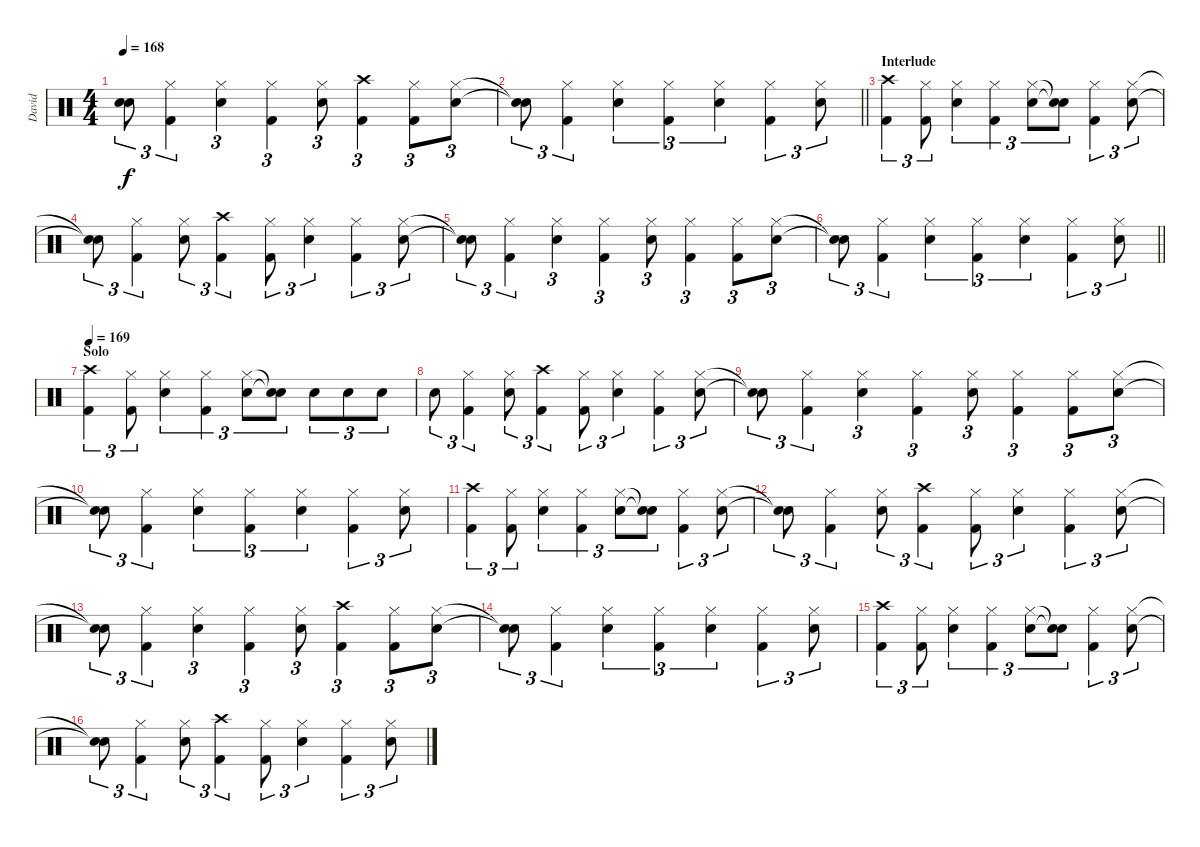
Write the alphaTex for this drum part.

\track ("David" "David") {instrument percussion}
\staff {score}
\articulation defaults
\ts (4 4)
\tempo 168
\clef neutral
\ks c
("Snare (hit)"{t} "Snare (hit)"{t}).8{tu (3 2) dy f} ("Hi-Hat (closed)" "Kick (hit) 2").4{tu (3 2)} ("Hi-Hat (closed)" "Snare (hit) 2").4{tu (3 2)} ("Hi-Hat (closed)" "Kick (hit) 2").4{tu (3 2)} ("Hi-Hat (closed)" "Snare (hit) 2").8{tu (3 2)} ("Crash high (hit)" "Kick (hit) 2").4{tu (3 2)} ("Hi-Hat (closed)" "Kick (hit) 2").8{tu (3 2)} ("Hi-Hat (closed)" "Snare (hit) 2").8{tu (3 2)} |
\barLineRight lightlight
("Snare (hit)"{t} "Snare (hit)"{t}).8{tu (3 2)} ("Hi-Hat (closed)" "Kick (hit) 2").4{tu (3 2)} ("Hi-Hat (closed)" "Snare (hit) 2").4{tu (3 2)} ("Hi-Hat (closed)" "Kick (hit) 2").4{tu (3 2)} ("Hi-Hat (closed)" "Snare (hit) 2").4{tu (3 2)} ("Hi-Hat (closed)" "Kick (hit) 2").4{tu (3 2)} ("Hi-Hat (closed)" "Snare (hit) 2").8{tu (3 2)} |
\section ("" "Interlude")
("Crash high (hit)" "Kick (hit) 2").4{tu (3 2)} ("Hi-Hat (closed)" "Kick (hit) 2").8{tu (3 2)} ("Hi-Hat (closed)" "Snare (hit) 2").4{tu (3 2)} ("Hi-Hat (closed)" "Kick (hit) 2").4{tu (3 2)} ("Hi-Hat (closed)" "Snare (hit) 2").8{tu (3 2)} ("Snare (hit)"{t} "Snare (hit)"{t}).8{tu (3 2)} ("Hi-Hat (closed)" "Kick (hit) 2").4{tu (3 2)} ("Hi-Hat (closed)" "Snare (hit) 2").8{tu (3 2)} |
("Snare (hit)"{t} "Snare (hit)"{t}).8{tu (3 2)} ("Hi-Hat (closed)" "Kick (hit) 2").4{tu (3 2)} ("Hi-Hat (closed)" "Snare (hit) 2").8{tu (3 2)} ("Crash high (hit)" "Kick (hit) 2").4{tu (3 2)} ("Hi-Hat (closed)" "Kick (hit) 2").8{tu (3 2)} ("Hi-Hat (closed)" "Snare (hit) 2").4{tu (3 2)} ("Hi-Hat (closed)" "Kick (hit) 2").4{tu (3 2)} ("Hi-Hat (closed)" "Snare (hit) 2").8{tu (3 2)} |
("Snare (hit)"{t} "Snare (hit)"{t}).8{tu (3 2)} ("Hi-Hat (closed)" "Kick (hit) 2").4{tu (3 2)} ("Hi-Hat (closed)" "Snare (hit) 2").4{tu (3 2)} ("Hi-Hat (closed)" "Kick (hit) 2").4{tu (3 2)} ("Hi-Hat (closed)" "Snare (hit) 2").8{tu (3 2)} ("Hi-Hat (closed)" "Kick (hit) 2").4{tu (3 2)} ("Hi-Hat (closed)" "Kick (hit) 2").8{tu (3 2)} ("Hi-Hat (closed)" "Snare (hit) 2").8{tu (3 2)} |
\barLineRight lightlight
("Snare (hit)"{t} "Snare (hit)"{t}).8{tu (3 2)} ("Hi-Hat (closed)" "Kick (hit) 2").4{tu (3 2)} ("Hi-Hat (closed)" "Snare (hit) 2").4{tu (3 2)} ("Hi-Hat (closed)" "Kick (hit) 2").4{tu (3 2)} ("Hi-Hat (closed)" "Snare (hit) 2").4{tu (3 2)} ("Hi-Hat (closed)" "Kick (hit) 2").4{tu (3 2)} ("Hi-Hat (closed)" "Snare (hit) 2").8{tu (3 2)} |
\section ("" "Solo")
\tempo 169
("Crash high (hit)" "Kick (hit) 2").4{tu (3 2)} ("Hi-Hat (closed)" "Kick (hit) 2").8{tu (3 2)} ("Hi-Hat (closed)" "Snare (hit) 2").4{tu (3 2)} ("Hi-Hat (closed)" "Kick (hit) 2").4{tu (3 2)} ("Hi-Hat (closed)" "Snare (hit) 2").8{tu (3 2)} ("Snare (hit)"{t} "Snare (hit)"{t}).8{tu (3 2)} "Snare (hit) 2".8{tu (3 2)} "Snare (hit) 2".8{tu (3 2)} "Snare (hit) 2".8{tu (3 2)} |
"Snare (hit) 2".8{tu (3 2)} ("Hi-Hat (closed)" "Kick (hit) 2").4{tu (3 2)} ("Hi-Hat (closed)" "Snare (hit) 2").8{tu (3 2)} ("Crash high (hit)" "Kick (hit) 2").4{tu (3 2)} ("Hi-Hat (closed)" "Kick (hit) 2").8{tu (3 2)} ("Hi-Hat (closed)" "Snare (hit) 2").4{tu (3 2)} ("Hi-Hat (closed)" "Kick (hit) 2").4{tu (3 2)} ("Hi-Hat (closed)" "Snare (hit) 2").8{tu (3 2)} |
("Snare (hit)"{t} "Snare (hit)"{t}).8{tu (3 2)} ("Hi-Hat (closed)" "Kick (hit) 2").4{tu (3 2)} ("Hi-Hat (closed)" "Snare (hit) 2").4{tu (3 2)} ("Hi-Hat (closed)" "Kick (hit) 2").4{tu (3 2)} ("Hi-Hat (closed)" "Snare (hit) 2").8{tu (3 2)} ("Hi-Hat (closed)" "Kick (hit) 2").4{tu (3 2)} ("Hi-Hat (closed)" "Kick (hit) 2").8{tu (3 2)} ("Hi-Hat (closed)" "Snare (hit) 2").8{tu (3 2)} |
("Snare (hit)"{t} "Snare (hit)"{t}).8{tu (3 2)} ("Hi-Hat (closed)" "Kick (hit) 2").4{tu (3 2)} ("Hi-Hat (closed)" "Snare (hit) 2").4{tu (3 2)} ("Hi-Hat (closed)" "Kick (hit) 2").4{tu (3 2)} ("Hi-Hat (closed)" "Snare (hit) 2").4{tu (3 2)} ("Hi-Hat (closed)" "Kick (hit) 2").4{tu (3 2)} ("Hi-Hat (closed)" "Snare (hit) 2").8{tu (3 2)} |
("Crash high (hit)" "Kick (hit) 2").4{tu (3 2)} ("Hi-Hat (closed)" "Kick (hit) 2").8{tu (3 2)} ("Hi-Hat (closed)" "Snare (hit) 2").4{tu (3 2)} ("Hi-Hat (closed)" "Kick (hit) 2").4{tu (3 2)} ("Hi-Hat (closed)" "Snare (hit) 2").8{tu (3 2)} ("Snare (hit)"{t} "Snare (hit)"{t}).8{tu (3 2)} ("Hi-Hat (closed)" "Kick (hit) 2").4{tu (3 2)} ("Hi-Hat (closed)" "Snare (hit) 2").8{tu (3 2)} |
("Snare (hit)"{t} "Snare (hit)"{t}).8{tu (3 2)} ("Hi-Hat (closed)" "Kick (hit) 2").4{tu (3 2)} ("Hi-Hat (closed)" "Snare (hit) 2").8{tu (3 2)} ("Crash high (hit)" "Kick (hit) 2").4{tu (3 2)} ("Hi-Hat (closed)" "Kick (hit) 2").8{tu (3 2)} ("Hi-Hat (closed)" "Snare (hit) 2").4{tu (3 2)} ("Hi-Hat (closed)" "Kick (hit) 2").4{tu (3 2)} ("Hi-Hat (closed)" "Snare (hit) 2").8{tu (3 2)} |
("Snare (hit)"{t} "Snare (hit)"{t}).8{tu (3 2)} ("Hi-Hat (closed)" "Kick (hit) 2").4{tu (3 2)} ("Hi-Hat (closed)" "Snare (hit) 2").4{tu (3 2)} ("Hi-Hat (closed)" "Kick (hit) 2").4{tu (3 2)} ("Hi-Hat (closed)" "Snare (hit) 2").8{tu (3 2)} ("Crash high (hit)" "Kick (hit) 2").4{tu (3 2)} ("Hi-Hat (closed)" "Kick (hit) 2").8{tu (3 2)} ("Hi-Hat (closed)" "Snare (hit) 2").8{tu (3 2)} |
("Snare (hit)"{t} "Snare (hit)"{t}).8{tu (3 2)} ("Hi-Hat (closed)" "Kick (hit) 2").4{tu (3 2)} ("Hi-Hat (closed)" "Snare (hit) 2").4{tu (3 2)} ("Hi-Hat (closed)" "Kick (hit) 2").4{tu (3 2)} ("Hi-Hat (closed)" "Snare (hit) 2").4{tu (3 2)} ("Hi-Hat (closed)" "Kick (hit) 2").4{tu (3 2)} ("Hi-Hat (closed)" "Snare (hit) 2").8{tu (3 2)} |
("Crash high (hit)" "Kick (hit) 2").4{tu (3 2)} ("Hi-Hat (closed)" "Kick (hit) 2").8{tu (3 2)} ("Hi-Hat (closed)" "Snare (hit) 2").4{tu (3 2)} ("Hi-Hat (closed)" "Kick (hit) 2").4{tu (3 2)} ("Hi-Hat (closed)" "Snare (hit) 2").8{tu (3 2)} ("Snare (hit)"{t} "Snare (hit)"{t}).8{tu (3 2)} ("Hi-Hat (closed)" "Kick (hit) 2").4{tu (3 2)} ("Hi-Hat (closed)" "Snare (hit) 2").8{tu (3 2)} |
("Snare (hit)"{t} "Snare (hit)"{t}).8{tu (3 2)} ("Hi-Hat (closed)" "Kick (hit) 2").4{tu (3 2)} ("Hi-Hat (closed)" "Snare (hit) 2").8{tu (3 2)} ("Crash high (hit)" "Kick (hit) 2").4{tu (3 2)} ("Hi-Hat (closed)" "Kick (hit) 2").8{tu (3 2)} ("Hi-Hat (closed)" "Snare (hit) 2").4{tu (3 2)} ("Hi-Hat (closed)" "Kick (hit) 2").4{tu (3 2)} ("Hi-Hat (closed)" "Snare (hit) 2").8{tu (3 2)}
